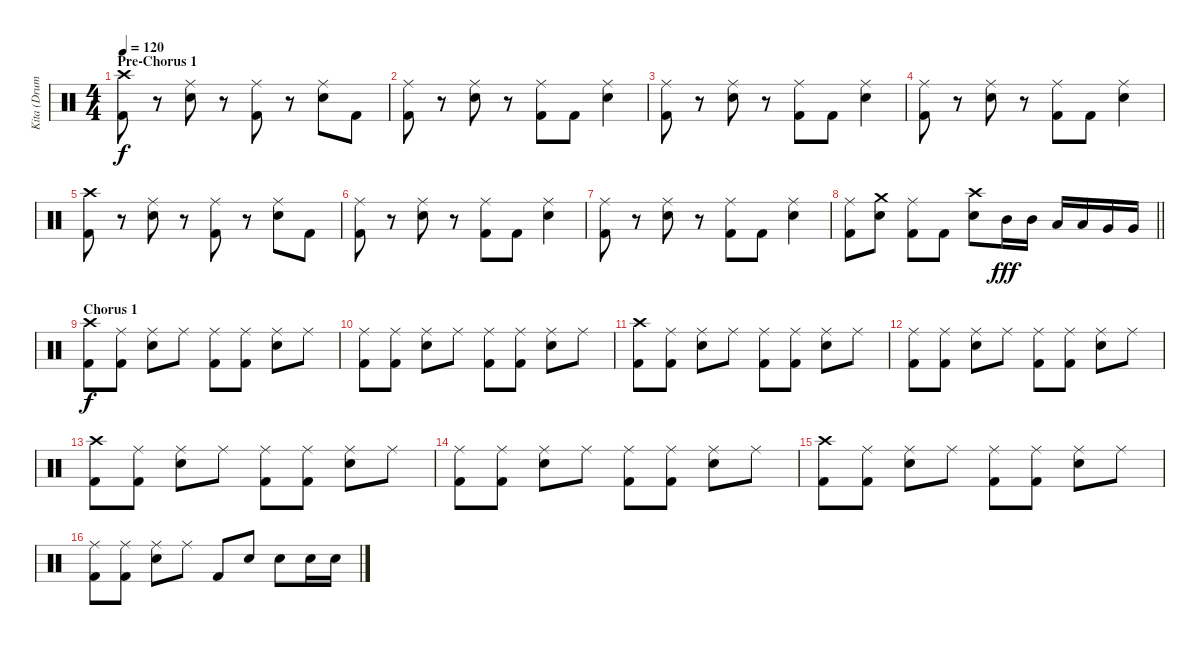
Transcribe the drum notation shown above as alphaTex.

\track ("Kita (Drums)" "Kita (Drum") {instrument percussion}
\staff {score}
\articulation defaults
\ts (4 4)
\section ("" "Pre-Chorus 1")
\tempo 120
\clef neutral
\ks c
("Crash high (hit)" "Kick (hit) 2").8{dy f} r.8 ("Ride (middle)" "Snare (hit) 2").8 r.8 ("Ride (middle)" "Kick (hit) 2").8 r.8 ("Ride (middle)" "Snare (hit) 2").8 "Kick (hit) 2".8 |
("Ride (middle)" "Kick (hit) 2").8 r.8 ("Ride (middle)" "Snare (hit) 2").8 r.8 ("Ride (middle)" "Kick (hit) 2").8 "Kick (hit) 2".8 ("Ride (middle)" "Snare (hit) 2").4 |
("Ride (middle)" "Kick (hit) 2").8 r.8 ("Ride (middle)" "Snare (hit) 2").8 r.8 ("Ride (middle)" "Kick (hit) 2").8 "Kick (hit) 2".8 ("Ride (middle)" "Snare (hit) 2").4 |
("Ride (middle)" "Kick (hit) 2").8 r.8 ("Ride (middle)" "Snare (hit) 2").8 r.8 ("Ride (middle)" "Kick (hit) 2").8 "Kick (hit) 2".8 ("Ride (middle)" "Snare (hit) 2").4 |
("Crash high (hit)" "Kick (hit) 2").8 r.8 ("Ride (middle)" "Snare (hit) 2").8 r.8 ("Ride (middle)" "Kick (hit) 2").8 r.8 ("Ride (middle)" "Snare (hit) 2").8 "Kick (hit) 2".8 |
("Ride (middle)" "Kick (hit) 2").8 r.8 ("Ride (middle)" "Snare (hit) 2").8 r.8 ("Ride (middle)" "Kick (hit) 2").8 "Kick (hit) 2".8 ("Ride (middle)" "Snare (hit) 2").4 |
("Ride (middle)" "Kick (hit) 2").8 r.8 ("Ride (middle)" "Snare (hit) 2").8 r.8 ("Ride (middle)" "Kick (hit) 2").8 "Kick (hit) 2".8 ("Ride (middle)" "Snare (hit) 2").4 |
\barLineRight lightlight
("Ride (middle)" "Kick (hit) 2").8 ("Crash medium (hit)" "Snare (hit) 2").8 ("Ride (middle)" "Kick (hit) 2").8 "Kick (hit) 2".8 ("Crash high (hit)" "Snare (hit) 2").8 "Mid Tom (hit)".16{dy fff} "Mid Tom (hit)".16 "Low Tom (hit)".16 "Low Tom (hit)".16 "Very Low Tom (hit)".16 "Very Low Tom (hit)".16 |
\section ("" "Chorus 1")
("Crash high (hit)" "Kick (hit) 2").8{dy f} ("Ride (middle)" "Kick (hit) 2").8 ("Ride (middle)" "Snare (hit) 2").8 "Ride (middle)".8 ("Ride (middle)" "Kick (hit) 2").8 ("Ride (middle)" "Kick (hit) 2").8 ("Ride (middle)" "Snare (hit) 2").8 "Ride (middle)".8 |
("Ride (middle)" "Kick (hit) 2").8 ("Ride (middle)" "Kick (hit) 2").8 ("Ride (middle)" "Snare (hit) 2").8 "Ride (middle)".8 ("Ride (middle)" "Kick (hit) 2").8 ("Ride (middle)" "Kick (hit) 2").8 ("Ride (middle)" "Snare (hit) 2").8 "Ride (middle)".8 |
("Crash high (hit)" "Kick (hit) 2").8 ("Ride (middle)" "Kick (hit) 2").8 ("Ride (middle)" "Snare (hit) 2").8 "Ride (middle)".8 ("Ride (middle)" "Kick (hit) 2").8 ("Ride (middle)" "Kick (hit) 2").8 ("Ride (middle)" "Snare (hit) 2").8 "Ride (middle)".8 |
("Ride (middle)" "Kick (hit) 2").8 ("Ride (middle)" "Kick (hit) 2").8 ("Ride (middle)" "Snare (hit) 2").8 "Ride (middle)".8 ("Ride (middle)" "Kick (hit) 2").8 ("Ride (middle)" "Kick (hit) 2").8 ("Ride (middle)" "Snare (hit) 2").8 "Ride (middle)".8 |
("Crash high (hit)" "Kick (hit) 2").8 ("Ride (middle)" "Kick (hit) 2").8 ("Ride (middle)" "Snare (hit) 2").8 "Ride (middle)".8 ("Ride (middle)" "Kick (hit) 2").8 ("Ride (middle)" "Kick (hit) 2").8 ("Ride (middle)" "Snare (hit) 2").8 "Ride (middle)".8 |
("Ride (middle)" "Kick (hit) 2").8 ("Ride (middle)" "Kick (hit) 2").8 ("Ride (middle)" "Snare (hit) 2").8 "Ride (middle)".8 ("Ride (middle)" "Kick (hit) 2").8 ("Ride (middle)" "Kick (hit) 2").8 ("Ride (middle)" "Snare (hit) 2").8 "Ride (middle)".8 |
("Crash high (hit)" "Kick (hit) 2").8 ("Ride (middle)" "Kick (hit) 2").8 ("Ride (middle)" "Snare (hit) 2").8 "Ride (middle)".8 ("Ride (middle)" "Kick (hit) 2").8 ("Ride (middle)" "Kick (hit) 2").8 ("Ride (middle)" "Snare (hit) 2").8 "Ride (middle)".8 |
("Ride (middle)" "Kick (hit) 2").8 ("Ride (middle)" "Kick (hit) 2").8 ("Ride (middle)" "Snare (hit) 2").8 "Ride (middle)".8 "Kick (hit) 2".8 "Snare (hit) 2".8 "Snare (hit) 2".8 "Snare (hit) 2".16 "Snare (hit) 2".16
